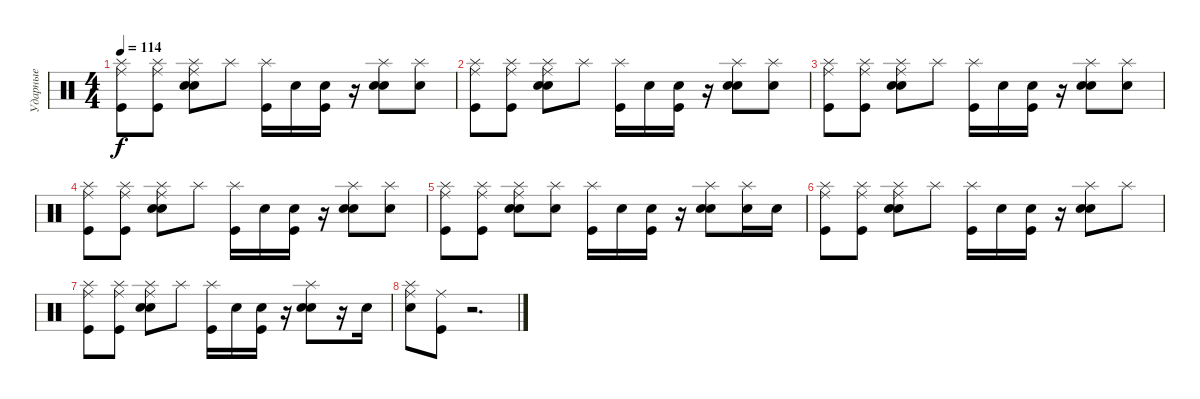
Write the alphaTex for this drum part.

\track ("Ударные" "Ударные") {instrument percussion}
\staff {score}
\articulation defaults
\ts (4 4)
\tempo 114
\clef neutral
\ks c
("Splash (hit)" "Ride (middle)" "Kick (hit)").8{dy f} ("Splash (hit)" "Ride (middle)" "Kick (hit)").8 ("Splash (hit)" "Ride (middle)" "Electric Snare (hit)" "Snare (hit) 2").8 "Splash (hit)".8 ("Splash (hit)" "Kick (hit)").16 "Electric Snare (hit)".16 ("Snare (hit) 2" "Kick (hit)").16 r.16 ("Splash (hit)" "Electric Snare (hit)" "Snare (hit) 2").8 ("Splash (hit)" "Electric Snare (hit)").8 |
("Splash (hit)" "Ride (middle)" "Kick (hit)").8 ("Splash (hit)" "Ride (middle)" "Kick (hit)").8 ("Splash (hit)" "Ride (middle)" "Electric Snare (hit)" "Snare (hit) 2").8 "Splash (hit)".8 ("Splash (hit)" "Kick (hit)").16 "Electric Snare (hit)".16 ("Snare (hit) 2" "Kick (hit)").16 r.16 ("Splash (hit)" "Electric Snare (hit)" "Snare (hit) 2").8 ("Splash (hit)" "Electric Snare (hit)").8 |
("Splash (hit)" "Ride (middle)" "Kick (hit)").8 ("Splash (hit)" "Ride (middle)" "Kick (hit)").8 ("Splash (hit)" "Ride (middle)" "Electric Snare (hit)" "Snare (hit) 2").8 "Splash (hit)".8 ("Splash (hit)" "Kick (hit)").16 "Electric Snare (hit)".16 ("Snare (hit) 2" "Kick (hit)").16 r.16 ("Splash (hit)" "Electric Snare (hit)" "Snare (hit) 2").8 ("Splash (hit)" "Electric Snare (hit)").8 |
("Splash (hit)" "Ride (middle)" "Kick (hit)").8 ("Splash (hit)" "Ride (middle)" "Kick (hit)").8 ("Splash (hit)" "Ride (middle)" "Electric Snare (hit)" "Snare (hit) 2").8 "Splash (hit)".8 ("Splash (hit)" "Kick (hit)").16 "Electric Snare (hit)".16 ("Snare (hit) 2" "Kick (hit)").16 r.16 ("Splash (hit)" "Electric Snare (hit)" "Snare (hit) 2").8 ("Splash (hit)" "Electric Snare (hit)").8 |
("Splash (hit)" "Ride (middle)" "Kick (hit)").8 ("Splash (hit)" "Ride (middle)" "Kick (hit)").8 ("Splash (hit)" "Ride (middle)" "Electric Snare (hit)" "Snare (hit) 2").8 ("Splash (hit)" "Electric Snare (hit)").8 ("Splash (hit)" "Kick (hit)").16 "Electric Snare (hit)".16 ("Snare (hit) 2" "Kick (hit)").16 r.16 ("Splash (hit)" "Electric Snare (hit)" "Snare (hit) 2").8 ("Splash (hit)" "Electric Snare (hit)").16 "Electric Snare (hit)".16 |
("Splash (hit)" "Ride (middle)" "Kick (hit)").8 ("Splash (hit)" "Ride (middle)" "Kick (hit)").8 ("Splash (hit)" "Ride (middle)" "Electric Snare (hit)" "Snare (hit) 2").8 "Splash (hit)".8 ("Splash (hit)" "Kick (hit)").16 "Electric Snare (hit)".16 ("Snare (hit) 2" "Kick (hit)").16 r.16 ("Splash (hit)" "Electric Snare (hit)" "Snare (hit) 2").8 "Splash (hit)".8 |
("Splash (hit)" "Ride (middle)" "Kick (hit)").8 ("Splash (hit)" "Ride (middle)" "Kick (hit)").8 ("Splash (hit)" "Ride (middle)" "Electric Snare (hit)" "Snare (hit) 2").8 "Splash (hit)".8 ("Splash (hit)" "Kick (hit)").16 "Electric Snare (hit)".16 ("Snare (hit) 2" "Kick (hit)").16 r.16 ("Splash (hit)" "Electric Snare (hit)" "Snare (hit) 2").8 r.16 "Electric Snare (hit)".16 |
("Splash (hit)" "Ride (middle)" "Electric Snare (hit)").8 ("Ride (middle)" "Kick (hit)").8 r.2{d}
